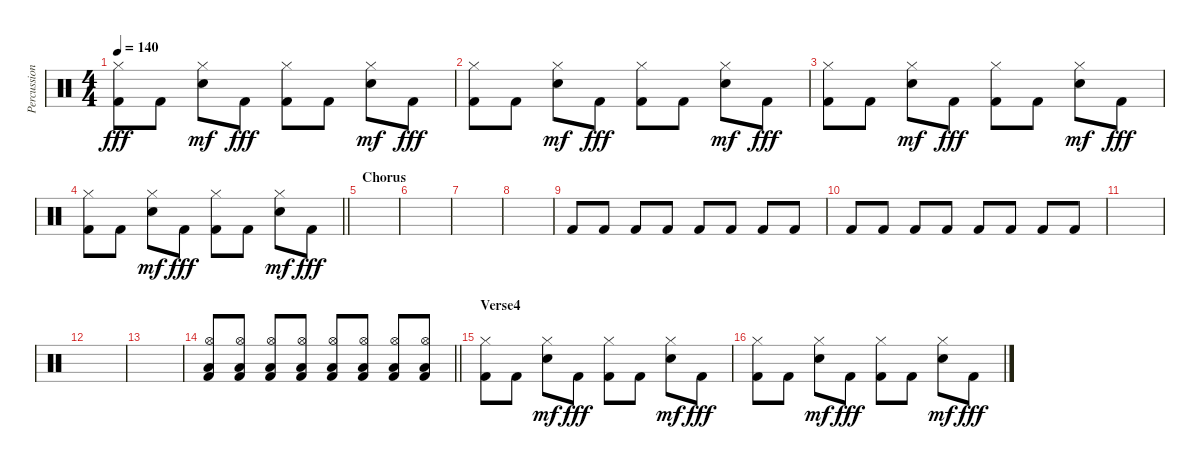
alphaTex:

\track ("Percussioni" "Percussion") {instrument percussion}
\staff {score}
\articulation defaults
\ts (4 4)
\tempo 140
\clef neutral
\ks c
("Hi-Hat (closed)" "Kick (hit) 2").8{dy fff} "Kick (hit) 2".8 ("Hi-Hat (closed)" "Snare (hit) 2").8{dy mf} "Kick (hit) 2".8{dy fff} ("Hi-Hat (closed)" "Kick (hit) 2").8 "Kick (hit) 2".8 ("Hi-Hat (closed)" "Snare (hit) 2").8{dy mf} "Kick (hit) 2".8{dy fff} |
("Hi-Hat (closed)" "Kick (hit) 2").8 "Kick (hit) 2".8 ("Hi-Hat (closed)" "Snare (hit) 2").8{dy mf} "Kick (hit) 2".8{dy fff} ("Hi-Hat (closed)" "Kick (hit) 2").8 "Kick (hit) 2".8 ("Hi-Hat (closed)" "Snare (hit) 2").8{dy mf} "Kick (hit) 2".8{dy fff} |
("Hi-Hat (closed)" "Kick (hit) 2").8 "Kick (hit) 2".8 ("Hi-Hat (closed)" "Snare (hit) 2").8{dy mf} "Kick (hit) 2".8{dy fff} ("Hi-Hat (closed)" "Kick (hit) 2").8 "Kick (hit) 2".8 ("Hi-Hat (closed)" "Snare (hit) 2").8{dy mf} "Kick (hit) 2".8{dy fff} |
\barLineRight lightlight
("Hi-Hat (closed)" "Kick (hit) 2").8 "Kick (hit) 2".8 ("Hi-Hat (closed)" "Snare (hit) 2").8{dy mf} "Kick (hit) 2".8{dy fff} ("Hi-Hat (closed)" "Kick (hit) 2").8 "Kick (hit) 2".8 ("Hi-Hat (closed)" "Snare (hit) 2").8{dy mf} "Kick (hit) 2".8{dy fff} |
\section ("" "Chorus")
|
|
|
|
"Kick (hit) 2".8{volume 16} "Kick (hit) 2".8 "Kick (hit) 2".8 "Kick (hit) 2".8 "Kick (hit) 2".8 "Kick (hit) 2".8 "Kick (hit) 2".8 "Kick (hit) 2".8 |
"Kick (hit) 2".8 "Kick (hit) 2".8 "Kick (hit) 2".8 "Kick (hit) 2".8 "Kick (hit) 2".8 "Kick (hit) 2".8 "Kick (hit) 2".8 "Kick (hit) 2".8 |
|
|
|
\barLineRight lightlight
("Hi-Hat (open)" "Low Floor Tom (hit)" "Kick (hit) 2").8{volume 14} ("Hi-Hat (open)" "Low Floor Tom (hit)" "Kick (hit) 2").8 ("Hi-Hat (open)" "Low Floor Tom (hit)" "Kick (hit) 2").8 ("Hi-Hat (open)" "Low Floor Tom (hit)" "Kick (hit) 2").8 ("Hi-Hat (open)" "Low Floor Tom (hit)" "Kick (hit) 2").8 ("Hi-Hat (open)" "Low Floor Tom (hit)" "Kick (hit) 2").8 ("Hi-Hat (open)" "Low Floor Tom (hit)" "Kick (hit) 2").8 ("Hi-Hat (open)" "Low Floor Tom (hit)" "Kick (hit) 2").8 |
\section ("" "Verse4")
("Hi-Hat (closed)" "Kick (hit) 2").8 "Kick (hit) 2".8 ("Hi-Hat (closed)" "Snare (hit) 2").8{dy mf} "Kick (hit) 2".8{dy fff} ("Hi-Hat (closed)" "Kick (hit) 2").8 "Kick (hit) 2".8 ("Hi-Hat (closed)" "Snare (hit) 2").8{dy mf} "Kick (hit) 2".8{dy fff} |
("Hi-Hat (closed)" "Kick (hit) 2").8 "Kick (hit) 2".8 ("Hi-Hat (closed)" "Snare (hit) 2").8{dy mf} "Kick (hit) 2".8{dy fff} ("Hi-Hat (closed)" "Kick (hit) 2").8 "Kick (hit) 2".8 ("Hi-Hat (closed)" "Snare (hit) 2").8{dy mf} "Kick (hit) 2".8{dy fff}
